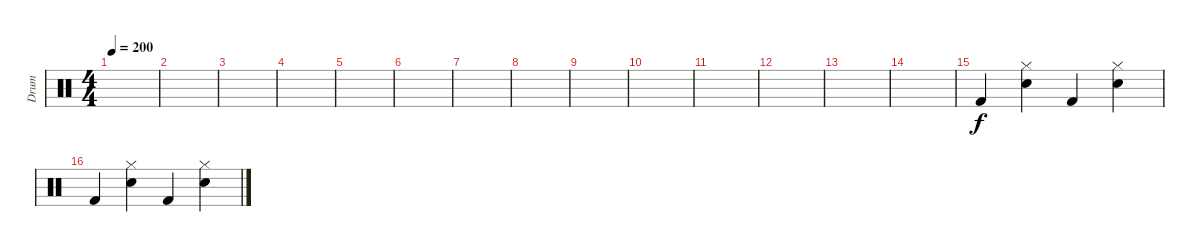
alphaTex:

\track ("Drum" "Drum") {instrument percussion}
\staff {score}
\articulation defaults
\ts (4 4)
\tempo 200
\clef neutral
\ks c
|
|
|
|
|
|
|
|
|
|
|
|
|
|
"Kick (hit) 2".4 ("Hi-Hat (closed)" "Electric Snare (hit)").4 "Kick (hit) 2".4 ("Hi-Hat (closed)" "Electric Snare (hit)").4 |
"Kick (hit) 2".4 ("Hi-Hat (closed)" "Electric Snare (hit)").4 "Kick (hit) 2".4 ("Hi-Hat (closed)" "Electric Snare (hit)").4
